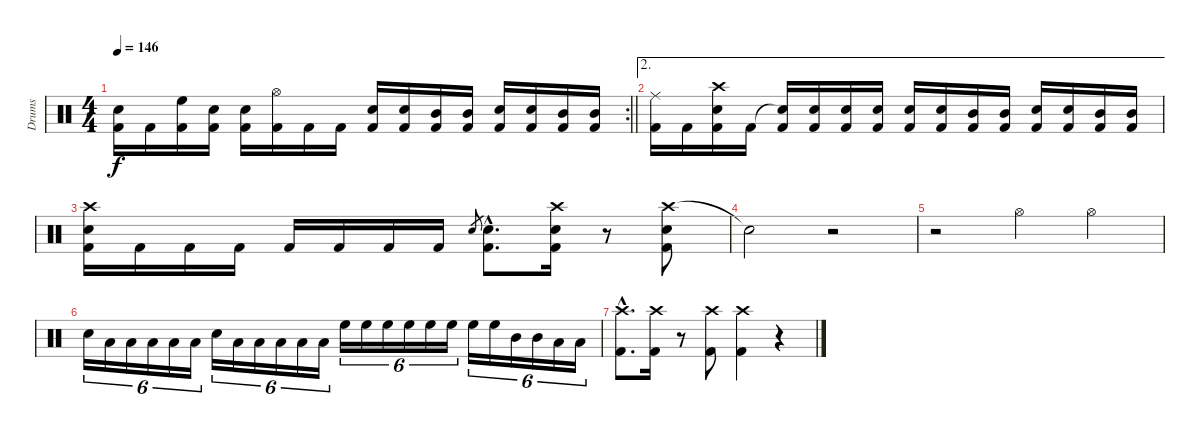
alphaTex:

\track ("Drums" "Drums") {instrument percussion}
\staff {score}
\articulation defaults
\rc 2
\ts (4 4)
\tempo 146
\clef neutral
\barLineRight lightlight
\ks c
("Snare (hit)"{t} "Kick (hit) 2").16{dy f} "Kick (hit) 2".16 ("High Floor Tom (hit)" "Kick (hit) 2").16 ("Snare (hit) 2" "Kick (hit) 2").16 ("Snare (hit) 2" "Kick (hit) 2").16 ("Hi-Hat (open)" "Kick (hit) 2").16 "Kick (hit) 2".16 "Kick (hit) 2".16 ("Snare (hit) 2" "Kick (hit) 2").16 ("Snare (hit) 2" "Kick (hit) 2").16 ("Mid Tom (hit)" "Kick (hit) 2").16 ("Mid Tom (hit)" "Kick (hit) 2").16 ("Snare (hit) 2" "Kick (hit) 2").16 ("Snare (hit) 2" "Kick (hit) 2").16 ("Mid Tom (hit)" "Kick (hit) 2").16 ("Mid Tom (hit)" "Kick (hit) 2").16 |
\ae 2
("Ride (middle)" "Kick (hit) 2").16 "Kick (hit) 2".16 ("Crash high (hit)" "Snare (hit) 2" "Kick (hit) 2").16 "Kick (hit) 2".16 ("Snare (hit)"{t} "Kick (hit) 2").16 ("Snare (hit) 2" "Kick (hit) 2").16 ("Snare (hit) 2" "Kick (hit) 2").16 ("Snare (hit) 2" "Kick (hit) 2").16 ("Snare (hit) 2" "Kick (hit) 2").16 ("Snare (hit) 2" "Kick (hit) 2").16 ("Mid Tom (hit)" "Kick (hit) 2").16 ("Mid Tom (hit)" "Kick (hit) 2").16 ("Snare (hit) 2" "Kick (hit) 2").16 ("Snare (hit) 2" "Kick (hit) 2").16 ("Mid Tom (hit)" "Kick (hit) 2").16 ("Mid Tom (hit)" "Kick (hit) 2").16 |
("Crash high (hit)" "Snare (hit) 2" "Kick (hit) 2").16 "Kick (hit) 2".16 "Kick (hit) 2".16 "Kick (hit) 2".16 "Kick (hit) 2".16 "Kick (hit) 2".16 "Kick (hit) 2".16 "Kick (hit) 2".16 "Snare (hit) 2".8{gr} ("Snare (hit) 2"{hac} "Kick (hit) 2"{hac}).8{d} ("Crash high (hit)" "Snare (hit) 2" "Kick (hit) 2").16 r.8 ("Crash high (hit)" "Snare (hit) 2" "Kick (hit) 2").8 |
"Snare (hit)"{t}.2 r.2 |
r.2 "Hi-Hat (open)".4 "Hi-Hat (open)".4 |
"Snare (hit) 2".16{tu (6 4)} "Low Floor Tom (hit)".16{tu (6 4)} "Low Floor Tom (hit)".16{tu (6 4)} "Low Floor Tom (hit)".16{tu (6 4)} "Low Floor Tom (hit)".16{tu (6 4)} "Low Floor Tom (hit)".16{tu (6 4)} "Snare (hit) 2".16{tu (6 4)} "Low Floor Tom (hit)".16{tu (6 4)} "Low Floor Tom (hit)".16{tu (6 4)} "Low Floor Tom (hit)".16{tu (6 4)} "Low Floor Tom (hit)".16{tu (6 4)} "Low Floor Tom (hit)".16{tu (6 4)} "High Floor Tom (hit)".16{tu (6 4)} "High Floor Tom (hit)".16{tu (6 4)} "High Floor Tom (hit)".16{tu (6 4)} "High Floor Tom (hit)".16{tu (6 4)} "High Floor Tom (hit)".16{tu (6 4)} "High Floor Tom (hit)".16{tu (6 4)} "High Floor Tom (hit)".16{tu (6 4)} "High Floor Tom (hit)".16{tu (6 4)} "Mid Tom (hit)".16{tu (6 4)} "Mid Tom (hit)".16{tu (6 4)} "Low Floor Tom (hit)".16{tu (6 4)} "Low Floor Tom (hit)".16{tu (6 4)} |
("Crash high (hit)"{hac} "Kick (hit) 2"{hac}).8{d} ("Crash high (hit)" "Kick (hit) 2").16 r.8 ("Crash high (hit)" "Kick (hit) 2").8 ("Crash high (hit)" "Kick (hit) 2").4 r.4
